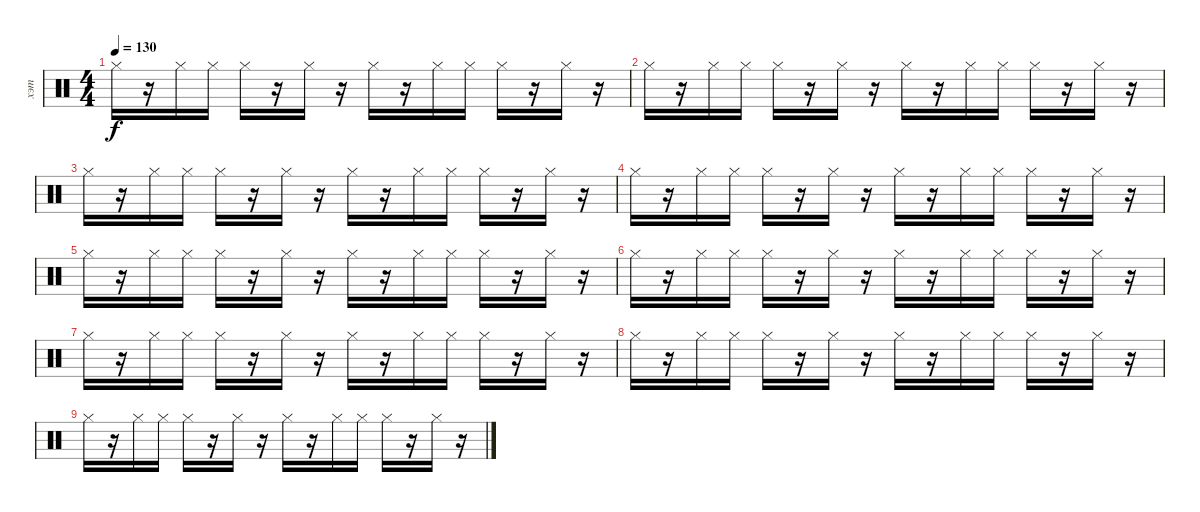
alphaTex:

\track ("хэт" "хэт") {instrument percussion}
\staff {score}
\articulation defaults
\ts (4 4)
\tempo 130
\clef neutral
\ks c "Hi-Hat (closed)".16{dy f}
r.16 "Hi-Hat (closed)".16 "Hi-Hat (closed)".16 "Hi-Hat (closed)".16 r.16 "Hi-Hat (closed)".16 r.16 "Hi-Hat (closed)".16 r.16 "Hi-Hat (closed)".16 "Hi-Hat (closed)".16 "Hi-Hat (closed)".16 r.16 "Hi-Hat (closed)".16 r.16 |
"Hi-Hat (closed)".16 r.16 "Hi-Hat (closed)".16 "Hi-Hat (closed)".16 "Hi-Hat (closed)".16 r.16 "Hi-Hat (closed)".16 r.16 "Hi-Hat (closed)".16 r.16 "Hi-Hat (closed)".16 "Hi-Hat (closed)".16 "Hi-Hat (closed)".16 r.16 "Hi-Hat (closed)".16 r.16 |
"Hi-Hat (closed)".16 r.16 "Hi-Hat (closed)".16 "Hi-Hat (closed)".16 "Hi-Hat (closed)".16 r.16 "Hi-Hat (closed)".16 r.16 "Hi-Hat (closed)".16 r.16 "Hi-Hat (closed)".16 "Hi-Hat (closed)".16 "Hi-Hat (closed)".16 r.16 "Hi-Hat (closed)".16 r.16 |
"Hi-Hat (closed)".16 r.16 "Hi-Hat (closed)".16 "Hi-Hat (closed)".16 "Hi-Hat (closed)".16 r.16 "Hi-Hat (closed)".16 r.16 "Hi-Hat (closed)".16 r.16 "Hi-Hat (closed)".16 "Hi-Hat (closed)".16 "Hi-Hat (closed)".16 r.16 "Hi-Hat (closed)".16 r.16 |
"Hi-Hat (closed)".16 r.16 "Hi-Hat (closed)".16 "Hi-Hat (closed)".16 "Hi-Hat (closed)".16 r.16 "Hi-Hat (closed)".16 r.16 "Hi-Hat (closed)".16 r.16 "Hi-Hat (closed)".16 "Hi-Hat (closed)".16 "Hi-Hat (closed)".16 r.16 "Hi-Hat (closed)".16 r.16 |
"Hi-Hat (closed)".16 r.16 "Hi-Hat (closed)".16 "Hi-Hat (closed)".16 "Hi-Hat (closed)".16 r.16 "Hi-Hat (closed)".16 r.16 "Hi-Hat (closed)".16 r.16 "Hi-Hat (closed)".16 "Hi-Hat (closed)".16 "Hi-Hat (closed)".16 r.16 "Hi-Hat (closed)".16 r.16 |
"Hi-Hat (closed)".16 r.16 "Hi-Hat (closed)".16 "Hi-Hat (closed)".16 "Hi-Hat (closed)".16 r.16 "Hi-Hat (closed)".16 r.16 "Hi-Hat (closed)".16 r.16 "Hi-Hat (closed)".16 "Hi-Hat (closed)".16 "Hi-Hat (closed)".16 r.16 "Hi-Hat (closed)".16 r.16 |
"Hi-Hat (closed)".16 r.16 "Hi-Hat (closed)".16 "Hi-Hat (closed)".16 "Hi-Hat (closed)".16 r.16 "Hi-Hat (closed)".16 r.16 "Hi-Hat (closed)".16 r.16 "Hi-Hat (closed)".16 "Hi-Hat (closed)".16 "Hi-Hat (closed)".16 r.16 "Hi-Hat (closed)".16 r.16 |
"Hi-Hat (closed)".16 r.16 "Hi-Hat (closed)".16 "Hi-Hat (closed)".16 "Hi-Hat (closed)".16 r.16 "Hi-Hat (closed)".16 r.16 "Hi-Hat (closed)".16 r.16 "Hi-Hat (closed)".16 "Hi-Hat (closed)".16 "Hi-Hat (closed)".16 r.16 "Hi-Hat (closed)".16 r.16
